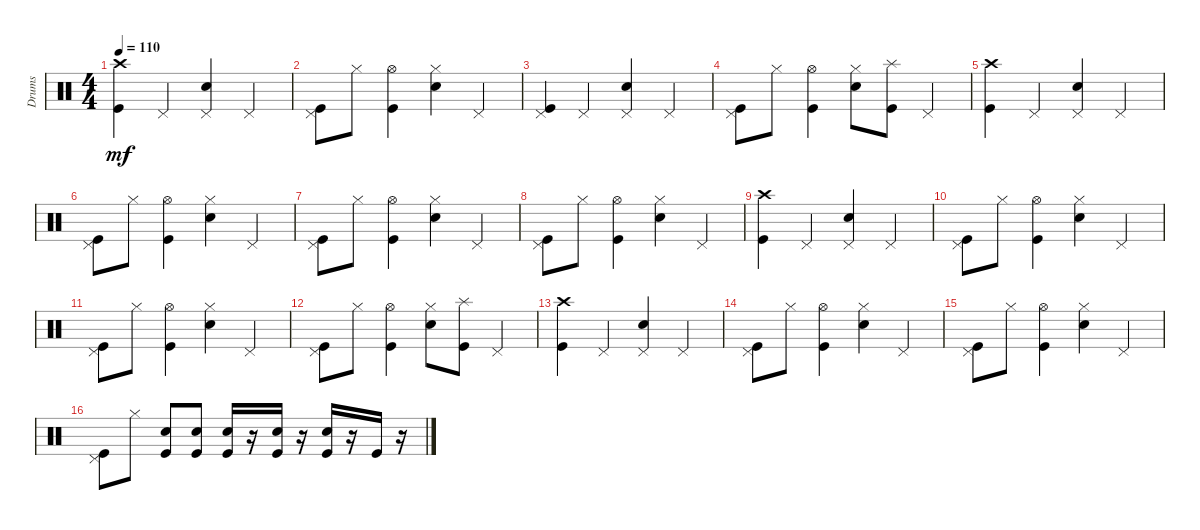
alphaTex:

\track ("Drums" "Drums") {instrument percussion}
\staff {score}
\articulation defaults
\ts (4 4)
\tempo 110
\clef neutral
\ks c
("Crash high (hit)" "Kick (hit)").4{dy mf} "Pedal Hi-Hat (hit)".4 ("Pedal Hi-Hat (hit)" "Snare (hit) 2").4 "Pedal Hi-Hat (hit)".4 |
("Pedal Hi-Hat (hit)" "Kick (hit)").8 "Hi-Hat (closed)".8 ("Hi-Hat (open)" "Kick (hit)").4 ("Hi-Hat (closed)" "Snare (hit) 2").4 "Pedal Hi-Hat (hit)".4 |
("Pedal Hi-Hat (hit)" "Kick (hit)").4 "Pedal Hi-Hat (hit)".4 ("Pedal Hi-Hat (hit)" "Snare (hit) 2").4 "Pedal Hi-Hat (hit)".4 |
("Pedal Hi-Hat (hit)" "Kick (hit)").8 "Hi-Hat (closed)".8 ("Hi-Hat (open)" "Kick (hit)").4 ("Hi-Hat (closed)" "Snare (hit) 2").8 ("Splash (hit)" "Kick (hit)").8 "Pedal Hi-Hat (hit)".4 |
("Crash high (hit)" "Kick (hit)").4 "Pedal Hi-Hat (hit)".4 ("Pedal Hi-Hat (hit)" "Snare (hit) 2").4 "Pedal Hi-Hat (hit)".4 |
("Pedal Hi-Hat (hit)" "Kick (hit)").8 "Hi-Hat (closed)".8 ("Hi-Hat (open)" "Kick (hit)").4 ("Hi-Hat (closed)" "Snare (hit) 2").4 "Pedal Hi-Hat (hit)".4 |
("Pedal Hi-Hat (hit)" "Kick (hit)").8 "Hi-Hat (closed)".8 ("Hi-Hat (open)" "Kick (hit)").4 ("Hi-Hat (closed)" "Snare (hit) 2").4 "Pedal Hi-Hat (hit)".4 |
("Pedal Hi-Hat (hit)" "Kick (hit)").8 "Hi-Hat (closed)".8 ("Hi-Hat (open)" "Kick (hit)").4 ("Hi-Hat (closed)" "Snare (hit) 2").4 "Pedal Hi-Hat (hit)".4 |
("Crash high (hit)" "Kick (hit)").4 "Pedal Hi-Hat (hit)".4 ("Pedal Hi-Hat (hit)" "Snare (hit) 2").4 "Pedal Hi-Hat (hit)".4 |
("Pedal Hi-Hat (hit)" "Kick (hit)").8 "Hi-Hat (closed)".8 ("Hi-Hat (open)" "Kick (hit)").4 ("Hi-Hat (closed)" "Snare (hit) 2").4 "Pedal Hi-Hat (hit)".4 |
("Pedal Hi-Hat (hit)" "Kick (hit)").8 "Hi-Hat (closed)".8 ("Hi-Hat (open)" "Kick (hit)").4 ("Hi-Hat (closed)" "Snare (hit) 2").4 "Pedal Hi-Hat (hit)".4 |
("Pedal Hi-Hat (hit)" "Kick (hit)").8 "Hi-Hat (closed)".8 ("Hi-Hat (open)" "Kick (hit)").4 ("Hi-Hat (closed)" "Snare (hit) 2").8 ("Splash (hit)" "Kick (hit)").8 "Pedal Hi-Hat (hit)".4 |
("Crash high (hit)" "Kick (hit)").4 "Pedal Hi-Hat (hit)".4 ("Pedal Hi-Hat (hit)" "Snare (hit) 2").4 "Pedal Hi-Hat (hit)".4 |
("Pedal Hi-Hat (hit)" "Kick (hit)").8 "Hi-Hat (closed)".8 ("Hi-Hat (open)" "Kick (hit)").4 ("Hi-Hat (closed)" "Snare (hit) 2").4 "Pedal Hi-Hat (hit)".4 |
("Pedal Hi-Hat (hit)" "Kick (hit)").8 "Hi-Hat (closed)".8 ("Hi-Hat (open)" "Kick (hit)").4 ("Hi-Hat (closed)" "Snare (hit) 2").4 "Pedal Hi-Hat (hit)".4 |
("Pedal Hi-Hat (hit)" "Kick (hit)").8 "Hi-Hat (closed)".8 ("Snare (hit) 2" "Kick (hit)").8 ("Snare (hit) 2" "Kick (hit)").8 ("Snare (hit) 2" "Kick (hit)").16 r.16 ("Snare (hit) 2" "Kick (hit)").16 r.16 ("Snare (hit) 2" "Kick (hit)").16 r.16 "Kick (hit)".16 r.16
